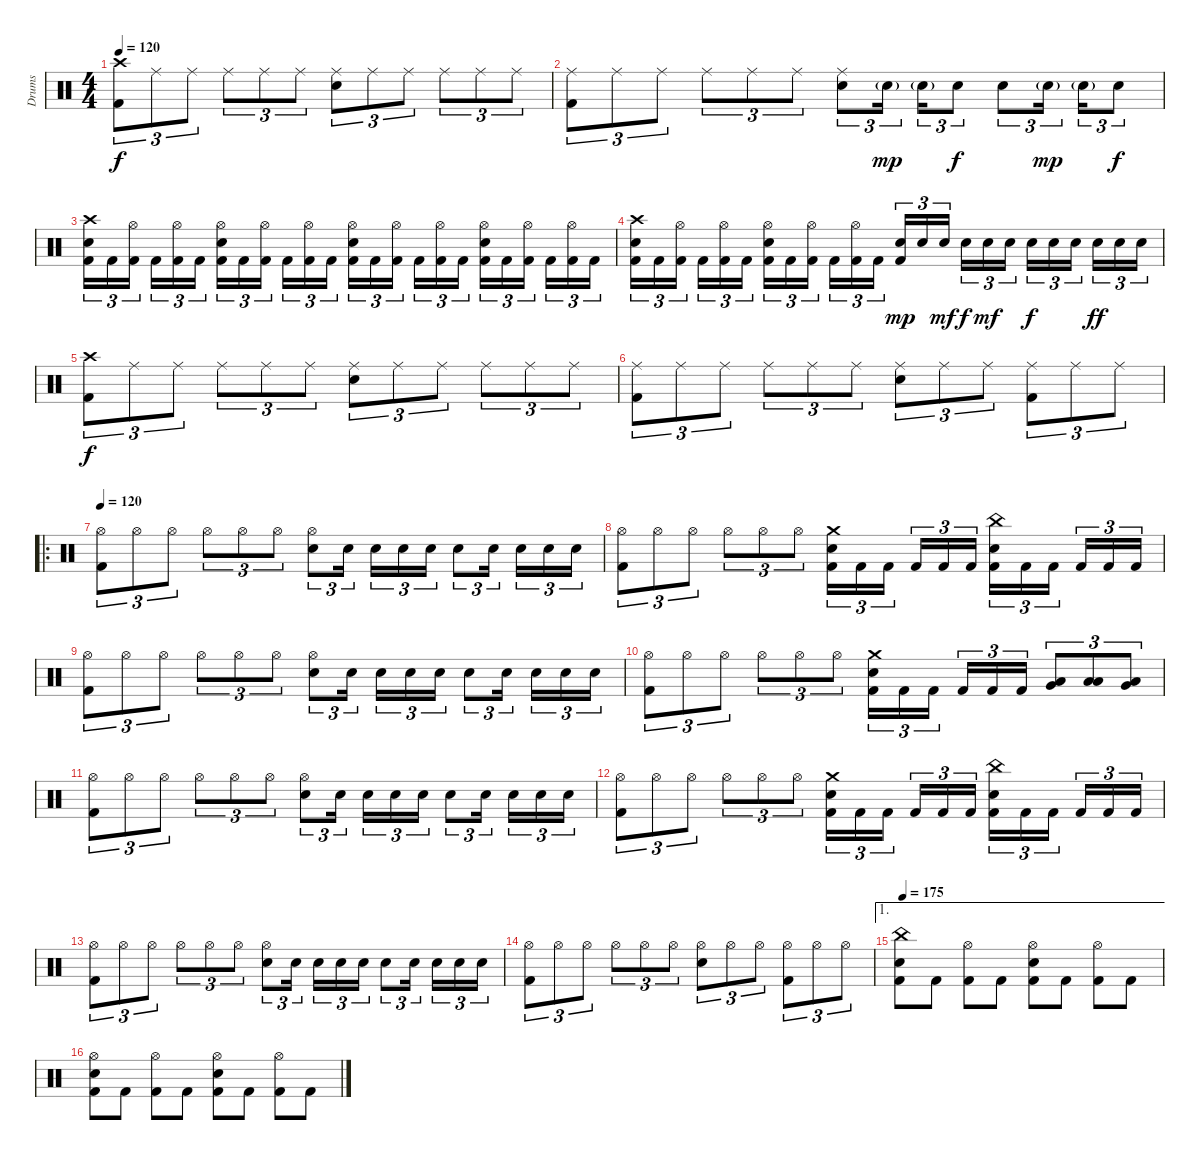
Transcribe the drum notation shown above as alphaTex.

\track ("Drums" "Drums") {instrument percussion}
\staff {score}
\articulation defaults
\ts (4 4)
\tempo 120
\clef neutral
\ks c
("Crash high (hit)" "Kick (hit) 2").8{tu (3 2) dy f} "Ride (middle)".8{tu (3 2)} "Ride (middle)".8{tu (3 2)} "Ride (middle)".8{tu (3 2)} "Ride (middle)".8{tu (3 2)} "Ride (middle)".8{tu (3 2)} ("Ride (middle)" "Electric Snare (hit)").8{tu (3 2)} "Ride (middle)".8{tu (3 2)} "Ride (middle)".8{tu (3 2)} "Ride (middle)".8{tu (3 2)} "Ride (middle)".8{tu (3 2)} "Ride (middle)".8{tu (3 2)} |
("Ride (middle)" "Kick (hit) 2").8{tu (3 2)} "Ride (middle)".8{tu (3 2)} "Ride (middle)".8{tu (3 2)} "Ride (middle)".8{tu (3 2)} "Ride (middle)".8{tu (3 2)} "Ride (middle)".8{tu (3 2)} ("Ride (middle)" "Electric Snare (hit)").8{tu (3 2)} "Electric Snare (hit)"{g}.16{tu (3 2) dy mp} "Electric Snare (hit)"{g}.16{tu (3 2)} "Electric Snare (hit)".8{tu (3 2) dy f} "Electric Snare (hit)".8{tu (3 2)} "Electric Snare (hit)"{g}.16{tu (3 2) dy mp} "Electric Snare (hit)"{g}.16{tu (3 2)} "Electric Snare (hit)".8{tu (3 2) dy f} |
("Crash high (hit)" "Electric Snare (hit)" "Kick (hit) 2").16{tu (3 2)} "Kick (hit) 2".16{tu (3 2)} ("Hi-Hat (open)" "Kick (hit) 2").16{tu (3 2)} "Kick (hit) 2".16{tu (3 2)} ("Hi-Hat (open)" "Kick (hit) 2").16{tu (3 2)} "Kick (hit) 2".16{tu (3 2)} ("Hi-Hat (open)" "Electric Snare (hit)" "Kick (hit) 2").16{tu (3 2)} "Kick (hit) 2".16{tu (3 2)} ("Hi-Hat (open)" "Kick (hit) 2").16{tu (3 2)} "Kick (hit) 2".16{tu (3 2)} ("Hi-Hat (open)" "Kick (hit) 2").16{tu (3 2)} "Kick (hit) 2".16{tu (3 2)} ("Hi-Hat (open)" "Electric Snare (hit)" "Kick (hit) 2").16{tu (3 2)} "Kick (hit) 2".16{tu (3 2)} ("Hi-Hat (open)" "Kick (hit) 2").16{tu (3 2)} "Kick (hit) 2".16{tu (3 2)} ("Hi-Hat (open)" "Kick (hit) 2").16{tu (3 2)} "Kick (hit) 2".16{tu (3 2)} ("Hi-Hat (open)" "Electric Snare (hit)" "Kick (hit) 2").16{tu (3 2)} "Kick (hit) 2".16{tu (3 2)} ("Hi-Hat (open)" "Kick (hit) 2").16{tu (3 2)} "Kick (hit) 2".16{tu (3 2)} ("Hi-Hat (open)" "Kick (hit) 2").16{tu (3 2)} "Kick (hit) 2".16{tu (3 2)} |
("Crash high (hit)" "Electric Snare (hit)" "Kick (hit) 2").16{tu (3 2)} "Kick (hit) 2".16{tu (3 2)} ("Hi-Hat (open)" "Kick (hit) 2").16{tu (3 2)} "Kick (hit) 2".16{tu (3 2)} ("Hi-Hat (open)" "Kick (hit) 2").16{tu (3 2)} "Kick (hit) 2".16{tu (3 2)} ("Hi-Hat (open)" "Electric Snare (hit)" "Kick (hit) 2").16{tu (3 2)} "Kick (hit) 2".16{tu (3 2)} ("Hi-Hat (open)" "Kick (hit) 2").16{tu (3 2)} "Kick (hit) 2".16{tu (3 2)} ("Hi-Hat (open)" "Kick (hit) 2").16{tu (3 2)} "Kick (hit) 2".16{tu (3 2)} ("Electric Snare (hit)" "Kick (hit) 2").16{tu (3 2) dy mp} "Electric Snare (hit)".16{tu (3 2)} "Electric Snare (hit)".16{tu (3 2) dy mf} "Electric Snare (hit)".16{tu (3 2) dy f} "Electric Snare (hit)".16{tu (3 2) dy mf} "Electric Snare (hit)".16{tu (3 2)} "Electric Snare (hit)".16{tu (3 2) dy f} "Electric Snare (hit)".16{tu (3 2)} "Electric Snare (hit)".16{tu (3 2)} "Electric Snare (hit)".16{tu (3 2) dy ff} "Electric Snare (hit)".16{tu (3 2)} "Electric Snare (hit)".16{tu (3 2)} |
("Crash high (hit)" "Kick (hit) 2").8{tu (3 2) dy f} "Ride (middle)".8{tu (3 2)} "Ride (middle)".8{tu (3 2)} "Ride (middle)".8{tu (3 2)} "Ride (middle)".8{tu (3 2)} "Ride (middle)".8{tu (3 2)} ("Ride (middle)" "Electric Snare (hit)").8{tu (3 2)} "Ride (middle)".8{tu (3 2)} "Ride (middle)".8{tu (3 2)} "Ride (middle)".8{tu (3 2)} "Ride (middle)".8{tu (3 2)} "Ride (middle)".8{tu (3 2)} |
("Ride (middle)" "Kick (hit) 2").8{tu (3 2)} "Ride (middle)".8{tu (3 2)} "Ride (middle)".8{tu (3 2)} "Ride (middle)".8{tu (3 2)} "Ride (middle)".8{tu (3 2)} "Ride (middle)".8{tu (3 2)} ("Ride (middle)" "Electric Snare (hit)").8{tu (3 2)} "Ride (middle)".8{tu (3 2)} "Ride (middle)".8{tu (3 2)} ("Ride (middle)" "Kick (hit) 2").8{tu (3 2)} "Ride (middle)".8{tu (3 2)} "Ride (middle)".8{tu (3 2)} |
\ro
\tempo 120
("Hi-Hat (open)" "Kick (hit) 2").8{tu (3 2)} "Hi-Hat (open)".8{tu (3 2)} "Hi-Hat (open)".8{tu (3 2)} "Hi-Hat (open)".8{tu (3 2)} "Hi-Hat (open)".8{tu (3 2)} "Hi-Hat (open)".8{tu (3 2)} ("Hi-Hat (open)" "Electric Snare (hit)").8{tu (3 2)} "Electric Snare (hit)".16{tu (3 2)} "Electric Snare (hit)".16{tu (3 2)} "Electric Snare (hit)".16{tu (3 2)} "Electric Snare (hit)".16{tu (3 2)} "Electric Snare (hit)".8{tu (3 2)} "Electric Snare (hit)".16{tu (3 2)} "Electric Snare (hit)".16{tu (3 2)} "Electric Snare (hit)".16{tu (3 2)} "Electric Snare (hit)".16{tu (3 2)} |
("Hi-Hat (open)" "Kick (hit) 2").8{tu (3 2)} "Hi-Hat (open)".8{tu (3 2)} "Hi-Hat (open)".8{tu (3 2)} "Hi-Hat (open)".8{tu (3 2)} "Hi-Hat (open)".8{tu (3 2)} "Hi-Hat (open)".8{tu (3 2)} ("Crash medium (hit)" "Electric Snare (hit)" "Kick (hit) 2").16{tu (3 2)} "Kick (hit) 2".16{tu (3 2)} "Kick (hit) 2".16{tu (3 2)} "Kick (hit) 2".16{tu (3 2)} "Kick (hit) 2".16{tu (3 2)} "Kick (hit) 2".16{tu (3 2)} ("China (hit)" "Electric Snare (hit)" "Kick (hit) 2").16{tu (3 2)} "Kick (hit) 2".16{tu (3 2)} "Kick (hit) 2".16{tu (3 2)} "Kick (hit) 2".16{tu (3 2)} "Kick (hit) 2".16{tu (3 2)} "Kick (hit) 2".16{tu (3 2)} |
("Hi-Hat (open)" "Kick (hit) 2").8{tu (3 2)} "Hi-Hat (open)".8{tu (3 2)} "Hi-Hat (open)".8{tu (3 2)} "Hi-Hat (open)".8{tu (3 2)} "Hi-Hat (open)".8{tu (3 2)} "Hi-Hat (open)".8{tu (3 2)} ("Hi-Hat (open)" "Electric Snare (hit)").8{tu (3 2)} "Electric Snare (hit)".16{tu (3 2)} "Electric Snare (hit)".16{tu (3 2)} "Electric Snare (hit)".16{tu (3 2)} "Electric Snare (hit)".16{tu (3 2)} "Electric Snare (hit)".8{tu (3 2)} "Electric Snare (hit)".16{tu (3 2)} "Electric Snare (hit)".16{tu (3 2)} "Electric Snare (hit)".16{tu (3 2)} "Electric Snare (hit)".16{tu (3 2)} |
("Hi-Hat (open)" "Kick (hit) 2").8{tu (3 2)} "Hi-Hat (open)".8{tu (3 2)} "Hi-Hat (open)".8{tu (3 2)} "Hi-Hat (open)".8{tu (3 2)} "Hi-Hat (open)".8{tu (3 2)} "Hi-Hat (open)".8{tu (3 2)} ("Crash medium (hit)" "Electric Snare (hit)" "Kick (hit) 2").16{tu (3 2)} "Kick (hit) 2".16{tu (3 2)} "Kick (hit) 2".16{tu (3 2)} "Kick (hit) 2".16{tu (3 2)} "Kick (hit) 2".16{tu (3 2)} "Kick (hit) 2".16{tu (3 2)} ("Low Tom (hit)" "Very Low Tom (hit)").8{tu (3 2)} ("Low Tom (hit)" "Low Floor Tom (hit)").8{tu (3 2)} ("Very Low Tom (hit)" "Low Floor Tom (hit)").8{tu (3 2)} |
("Hi-Hat (open)" "Kick (hit) 2").8{tu (3 2)} "Hi-Hat (open)".8{tu (3 2)} "Hi-Hat (open)".8{tu (3 2)} "Hi-Hat (open)".8{tu (3 2)} "Hi-Hat (open)".8{tu (3 2)} "Hi-Hat (open)".8{tu (3 2)} ("Hi-Hat (open)" "Electric Snare (hit)").8{tu (3 2)} "Electric Snare (hit)".16{tu (3 2)} "Electric Snare (hit)".16{tu (3 2)} "Electric Snare (hit)".16{tu (3 2)} "Electric Snare (hit)".16{tu (3 2)} "Electric Snare (hit)".8{tu (3 2)} "Electric Snare (hit)".16{tu (3 2)} "Electric Snare (hit)".16{tu (3 2)} "Electric Snare (hit)".16{tu (3 2)} "Electric Snare (hit)".16{tu (3 2)} |
("Hi-Hat (open)" "Kick (hit) 2").8{tu (3 2)} "Hi-Hat (open)".8{tu (3 2)} "Hi-Hat (open)".8{tu (3 2)} "Hi-Hat (open)".8{tu (3 2)} "Hi-Hat (open)".8{tu (3 2)} "Hi-Hat (open)".8{tu (3 2)} ("Crash medium (hit)" "Electric Snare (hit)" "Kick (hit) 2").16{tu (3 2)} "Kick (hit) 2".16{tu (3 2)} "Kick (hit) 2".16{tu (3 2)} "Kick (hit) 2".16{tu (3 2)} "Kick (hit) 2".16{tu (3 2)} "Kick (hit) 2".16{tu (3 2)} ("China (hit)" "Electric Snare (hit)" "Kick (hit) 2").16{tu (3 2)} "Kick (hit) 2".16{tu (3 2)} "Kick (hit) 2".16{tu (3 2)} "Kick (hit) 2".16{tu (3 2)} "Kick (hit) 2".16{tu (3 2)} "Kick (hit) 2".16{tu (3 2)} |
("Hi-Hat (open)" "Kick (hit) 2").8{tu (3 2)} "Hi-Hat (open)".8{tu (3 2)} "Hi-Hat (open)".8{tu (3 2)} "Hi-Hat (open)".8{tu (3 2)} "Hi-Hat (open)".8{tu (3 2)} "Hi-Hat (open)".8{tu (3 2)} ("Hi-Hat (open)" "Electric Snare (hit)").8{tu (3 2)} "Electric Snare (hit)".16{tu (3 2)} "Electric Snare (hit)".16{tu (3 2)} "Electric Snare (hit)".16{tu (3 2)} "Electric Snare (hit)".16{tu (3 2)} "Electric Snare (hit)".8{tu (3 2)} "Electric Snare (hit)".16{tu (3 2)} "Electric Snare (hit)".16{tu (3 2)} "Electric Snare (hit)".16{tu (3 2)} "Electric Snare (hit)".16{tu (3 2)} |
("Hi-Hat (open)" "Kick (hit) 2").8{tu (3 2)} "Hi-Hat (open)".8{tu (3 2)} "Hi-Hat (open)".8{tu (3 2)} "Hi-Hat (open)".8{tu (3 2)} "Hi-Hat (open)".8{tu (3 2)} "Hi-Hat (open)".8{tu (3 2)} ("Hi-Hat (open)" "Electric Snare (hit)").8{tu (3 2)} "Hi-Hat (open)".8{tu (3 2)} "Hi-Hat (open)".8{tu (3 2)} ("Hi-Hat (open)" "Kick (hit) 2").8{tu (3 2)} "Hi-Hat (open)".8{tu (3 2)} "Hi-Hat (open)".8{tu (3 2)} |
\ae 1
\tempo 175
("China (hit)" "Electric Snare (hit)" "Kick (hit) 2").8 "Kick (hit) 2".8 ("Hi-Hat (open)" "Kick (hit) 2").8 "Kick (hit) 2".8 ("Hi-Hat (open)" "Electric Snare (hit)" "Kick (hit) 2").8 "Kick (hit) 2".8 ("Hi-Hat (open)" "Kick (hit) 2").8 "Kick (hit) 2".8 |
("Hi-Hat (open)" "Electric Snare (hit)" "Kick (hit) 2").8 "Kick (hit) 2".8 ("Hi-Hat (open)" "Kick (hit) 2").8 "Kick (hit) 2".8 ("Hi-Hat (open)" "Electric Snare (hit)" "Kick (hit) 2").8 "Kick (hit) 2".8 ("Hi-Hat (open)" "Kick (hit) 2").8 "Kick (hit) 2".8
